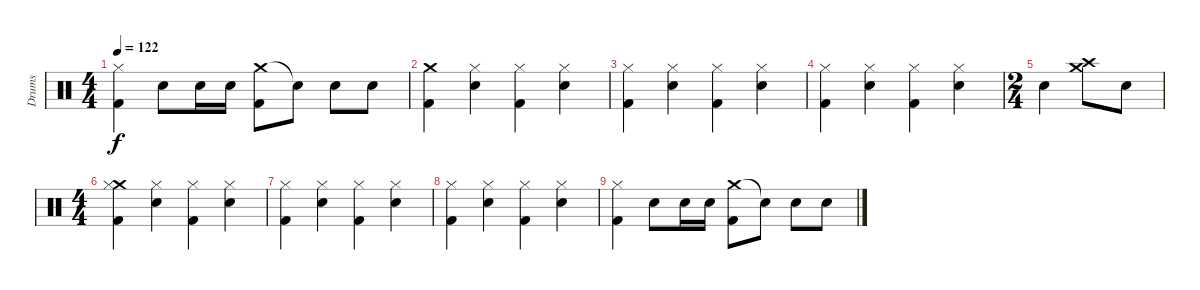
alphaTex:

\track ("Drums" "Drums") {instrument percussion}
\staff {score}
\articulation defaults
\ts (4 4)
\tempo 122
\clef neutral
\ks aminor
("Hi-Hat (closed)" "Kick (hit) 2").4{dy f} "Electric Snare (hit)".8 "Electric Snare (hit)".16 "Electric Snare (hit)".16 ("Crash medium (hit)" "Kick (hit) 2").8 "Electric Snare (hit)"{t}.8 "Electric Snare (hit)".8 "Electric Snare (hit)".8 |
("Crash medium (hit)" "Kick (hit) 2").4 ("Hi-Hat (closed)" "Snare (hit) 2").4 ("Hi-Hat (closed)" "Kick (hit) 2").4 ("Hi-Hat (closed)" "Snare (hit) 2").4 |
("Hi-Hat (closed)" "Kick (hit) 2").4 ("Hi-Hat (closed)" "Snare (hit) 2").4 ("Hi-Hat (closed)" "Kick (hit) 2").4 ("Hi-Hat (closed)" "Snare (hit) 2").4 |
("Hi-Hat (closed)" "Kick (hit) 2").4 ("Hi-Hat (closed)" "Snare (hit) 2").4 ("Hi-Hat (closed)" "Kick (hit) 2").4 ("Hi-Hat (closed)" "Snare (hit) 2").4 |
\ts (2 4)
"Electric Snare (hit)".4 ("Crash medium (hit)" "Crash high (hit)").8 "Electric Snare (hit)".8 |
\ts (4 4)
("Crash medium (hit)" "Hi-Hat (closed)" "Kick (hit) 2").4 ("Hi-Hat (closed)" "Snare (hit) 2").4 ("Hi-Hat (closed)" "Kick (hit) 2").4 ("Hi-Hat (closed)" "Snare (hit) 2").4 |
("Hi-Hat (closed)" "Kick (hit) 2").4 ("Hi-Hat (closed)" "Snare (hit) 2").4 ("Hi-Hat (closed)" "Kick (hit) 2").4 ("Hi-Hat (closed)" "Snare (hit) 2").4 |
("Hi-Hat (closed)" "Kick (hit) 2").4 ("Hi-Hat (closed)" "Snare (hit) 2").4 ("Hi-Hat (closed)" "Kick (hit) 2").4 ("Hi-Hat (closed)" "Snare (hit) 2").4 |
("Hi-Hat (closed)" "Kick (hit) 2").4 "Electric Snare (hit)".8 "Electric Snare (hit)".16 "Electric Snare (hit)".16 ("Crash medium (hit)" "Kick (hit) 2").8 "Electric Snare (hit)"{t}.8 "Electric Snare (hit)".8 "Electric Snare (hit)".8
